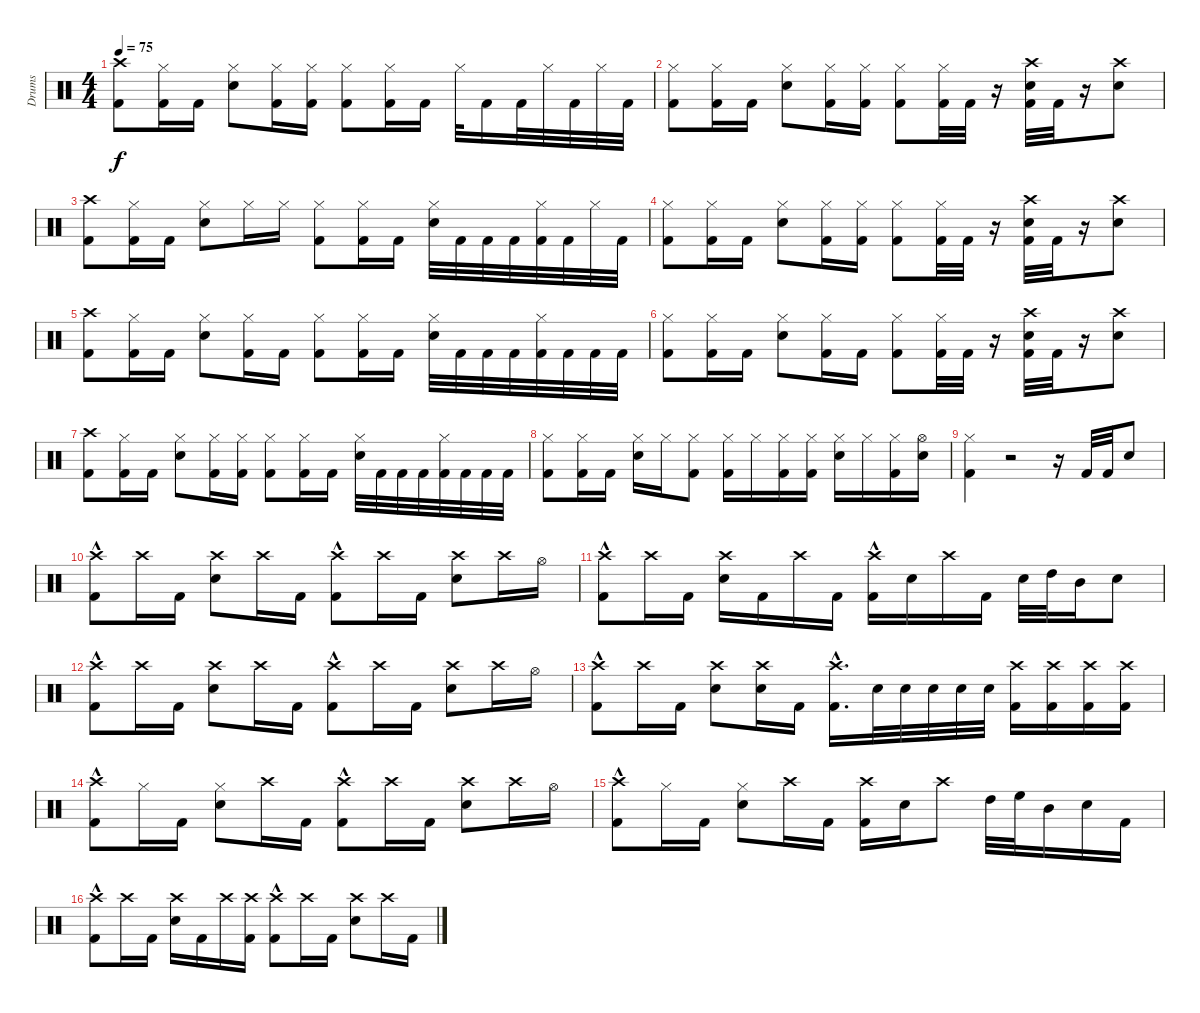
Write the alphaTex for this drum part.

\track ("Drums" "Drums") {instrument percussion}
\staff {score}
\articulation defaults
\ts (4 4)
\tempo 75
\clef neutral
\ks c
("Crash high (hit)" "Kick (hit) 2").8{dy f} ("Hi-Hat (closed)" "Kick (hit) 2").16 "Kick (hit) 2".16 ("Hi-Hat (closed)" "Snare (hit) 2").8 ("Hi-Hat (closed)" "Kick (hit) 2").16 ("Hi-Hat (closed)" "Kick (hit) 2").16 ("Hi-Hat (closed)" "Kick (hit) 2").8 ("Hi-Hat (closed)" "Kick (hit) 2").16 "Kick (hit) 2".16 "Hi-Hat (closed)".32 "Kick (hit) 2".16 "Kick (hit) 2".32 "Hi-Hat (closed)".32 "Kick (hit) 2".32 "Hi-Hat (closed)".32 "Kick (hit) 2".32 |
("Hi-Hat (closed)" "Kick (hit) 2").8 ("Hi-Hat (closed)" "Kick (hit) 2").16 "Kick (hit) 2".16 ("Hi-Hat (closed)" "Snare (hit) 2").8 ("Hi-Hat (closed)" "Kick (hit) 2").16 ("Hi-Hat (closed)" "Kick (hit) 2").16 ("Hi-Hat (closed)" "Kick (hit) 2").8 ("Hi-Hat (closed)" "Kick (hit) 2").32 "Kick (hit) 2".32 r.16 ("Crash high (hit)" "Snare (hit) 2" "Kick (hit) 2").32 "Kick (hit) 2".32 r.16 ("Crash high (hit)" "Snare (hit) 2").8 |
("Crash high (hit)" "Kick (hit) 2").8 ("Hi-Hat (closed)" "Kick (hit) 2").16 "Kick (hit) 2".16 ("Hi-Hat (closed)" "Snare (hit) 2").8 "Hi-Hat (closed)".16 "Hi-Hat (closed)".16 ("Hi-Hat (closed)" "Kick (hit) 2").8 ("Hi-Hat (closed)" "Kick (hit) 2").16 "Kick (hit) 2".16 ("Hi-Hat (closed)" "Snare (hit) 2").32 "Kick (hit) 2".32 "Kick (hit) 2".32 "Kick (hit) 2".32 ("Hi-Hat (closed)" "Kick (hit) 2").32 "Kick (hit) 2".32 "Hi-Hat (closed)".32 "Kick (hit) 2".32 |
("Hi-Hat (closed)" "Kick (hit) 2").8 ("Hi-Hat (closed)" "Kick (hit) 2").16 "Kick (hit) 2".16 ("Hi-Hat (closed)" "Snare (hit) 2").8 ("Hi-Hat (closed)" "Kick (hit) 2").16 ("Hi-Hat (closed)" "Kick (hit) 2").16 ("Hi-Hat (closed)" "Kick (hit) 2").8 ("Hi-Hat (closed)" "Kick (hit) 2").32 "Kick (hit) 2".32 r.16 ("Crash high (hit)" "Snare (hit) 2" "Kick (hit) 2").32 "Kick (hit) 2".32 r.16 ("Crash high (hit)" "Snare (hit) 2").8 |
("Crash high (hit)" "Kick (hit) 2").8 ("Hi-Hat (closed)" "Kick (hit) 2").16 "Kick (hit) 2".16 ("Hi-Hat (closed)" "Snare (hit) 2").8 ("Hi-Hat (closed)" "Kick (hit) 2").16 "Kick (hit) 2".16 ("Hi-Hat (closed)" "Kick (hit) 2").8 ("Hi-Hat (closed)" "Kick (hit) 2").16 "Kick (hit) 2".16 ("Hi-Hat (closed)" "Snare (hit) 2").32 "Kick (hit) 2".32 "Kick (hit) 2".32 "Kick (hit) 2".32 ("Hi-Hat (closed)" "Kick (hit) 2").32 "Kick (hit) 2".32 "Kick (hit) 2".32 "Kick (hit) 2".32 |
("Hi-Hat (closed)" "Kick (hit) 2").8 ("Hi-Hat (closed)" "Kick (hit) 2").16 "Kick (hit) 2".16 ("Hi-Hat (closed)" "Snare (hit) 2").8 ("Kick (hit) 2" "Hi-Hat (closed)").16 "Kick (hit) 2".16 ("Hi-Hat (closed)" "Kick (hit) 2").8 ("Hi-Hat (closed)" "Kick (hit) 2").32 "Kick (hit) 2".32 r.16 ("Crash high (hit)" "Snare (hit) 2" "Kick (hit) 2").32 "Kick (hit) 2".32 r.16 ("Crash high (hit)" "Snare (hit) 2").8 |
("Crash high (hit)" "Kick (hit) 2").8 ("Hi-Hat (closed)" "Kick (hit) 2").16 "Kick (hit) 2".16 ("Hi-Hat (closed)" "Snare (hit) 2").8 ("Kick (hit) 2" "Hi-Hat (closed)").16 ("Kick (hit) 2" "Hi-Hat (closed)").16 ("Hi-Hat (closed)" "Kick (hit) 2").8 ("Hi-Hat (closed)" "Kick (hit) 2").16 "Kick (hit) 2".16 ("Hi-Hat (closed)" "Snare (hit) 2").32 "Kick (hit) 2".32 "Kick (hit) 2".32 "Kick (hit) 2".32 ("Hi-Hat (closed)" "Kick (hit) 2").32 "Kick (hit) 2".32 "Kick (hit) 2".32 "Kick (hit) 2".32 |
("Hi-Hat (closed)" "Kick (hit) 2").8 ("Hi-Hat (closed)" "Kick (hit) 2").16 "Kick (hit) 2".16 ("Hi-Hat (closed)" "Snare (hit) 2").16 "Hi-Hat (closed)".16 ("Hi-Hat (closed)" "Kick (hit) 2").8 ("Kick (hit) 2" "Hi-Hat (closed)").16 "Hi-Hat (closed)".16 ("Kick (hit) 2" "Hi-Hat (closed)").16 ("Kick (hit) 2" "Hi-Hat (closed)").16 ("Hi-Hat (closed)" "Snare (hit) 2").16 "Hi-Hat (closed)".16 ("Hi-Hat (closed)" "Kick (hit) 2").16 ("Hi-Hat (open)" "Snare (hit) 2").16 |
("Kick (hit) 2" "Hi-Hat (closed)").4 r.2 r.16 "Kick (hit) 2".32 "Kick (hit) 2".32 "Snare (hit) 2".8 |
("Crash high (hit)" "Kick (hit) 2"{hac}).8 "Crash high (hit)".16 "Kick (hit) 2".16 ("Crash high (hit)" "Snare (hit) 2").8 "Crash high (hit)".16 "Kick (hit) 2".16 ("Crash high (hit)" "Kick (hit) 2"{hac}).8 "Crash high (hit)".16 "Kick (hit) 2".16 ("Crash high (hit)" "Snare (hit) 2").8 "Crash high (hit)".16 "Hi-Hat (open)".16 |
("Crash high (hit)" "Kick (hit) 2"{hac}).8 "Crash high (hit)".16 "Kick (hit) 2".16 ("Crash high (hit)" "Snare (hit) 2").16 "Kick (hit) 2".16 "Crash high (hit)".16 "Kick (hit) 2".16 ("Crash high (hit)" "Kick (hit) 2"{hac}).16 "Snare (hit) 2".16 "Crash high (hit)".16 "Kick (hit) 2".16 "Snare (hit) 2".32 "High Tom (hit)".32 "Mid Tom (hit)".16 "Snare (hit) 2".8 |
("Crash high (hit)" "Kick (hit) 2"{hac}).8 "Crash high (hit)".16 "Kick (hit) 2".16 ("Crash high (hit)" "Snare (hit) 2").8 "Crash high (hit)".16 "Kick (hit) 2".16 ("Crash high (hit)" "Kick (hit) 2"{hac}).8 "Crash high (hit)".16 "Kick (hit) 2".16 ("Crash high (hit)" "Snare (hit) 2").8 "Crash high (hit)".16 "Hi-Hat (open)".16 |
("Crash high (hit)" "Kick (hit) 2"{hac}).8 "Crash high (hit)".16 "Kick (hit) 2".16 ("Crash high (hit)" "Snare (hit) 2").8 ("Crash high (hit)" "Snare (hit) 2").16 "Kick (hit) 2".16 ("Kick (hit) 2" "Crash high (hit)"{hac}).16{d} "Snare (hit) 2".32 "Snare (hit) 2".32 "Snare (hit) 2".32 "Snare (hit) 2".32 "Snare (hit) 2".32 ("Kick (hit) 2" "Crash high (hit)").16 ("Kick (hit) 2" "Crash high (hit)").16 ("Kick (hit) 2" "Crash high (hit)").16 ("Kick (hit) 2" "Crash high (hit)").16 |
("Crash high (hit)" "Kick (hit) 2"{hac}).8 "Hi-Hat (closed)".16 "Kick (hit) 2".16 ("Hi-Hat (closed)" "Snare (hit) 2").8 "Crash high (hit)".16 "Kick (hit) 2".16 ("Crash high (hit)" "Kick (hit) 2"{hac}).8 "Crash high (hit)".16 "Kick (hit) 2".16 ("Crash high (hit)" "Snare (hit) 2").8 "Crash high (hit)".16 "Hi-Hat (open)".16 |
("Crash high (hit)" "Kick (hit) 2"{hac}).8 "Hi-Hat (closed)".16 "Kick (hit) 2".16 ("Hi-Hat (closed)" "Snare (hit) 2").8 "Crash high (hit)".16 "Kick (hit) 2".16 ("Crash high (hit)" "Kick (hit) 2").16 "Snare (hit) 2".16 "Crash high (hit)".8 "High Tom (hit)".32 "High Floor Tom (hit)".32 "Mid Tom (hit)".16 "Snare (hit) 2".16 "Kick (hit) 2".16 |
("Crash high (hit)" "Kick (hit) 2"{hac}).8 "Crash high (hit)".16 "Kick (hit) 2".16 ("Crash high (hit)" "Snare (hit) 2").16 "Kick (hit) 2".16 "Crash high (hit)".16 ("Crash high (hit)" "Kick (hit) 2").16 ("Crash high (hit)" "Kick (hit) 2"{hac}).8 "Crash high (hit)".16 "Kick (hit) 2".16 ("Crash high (hit)" "Snare (hit) 2").8 "Crash high (hit)".16 "Kick (hit) 2".16
